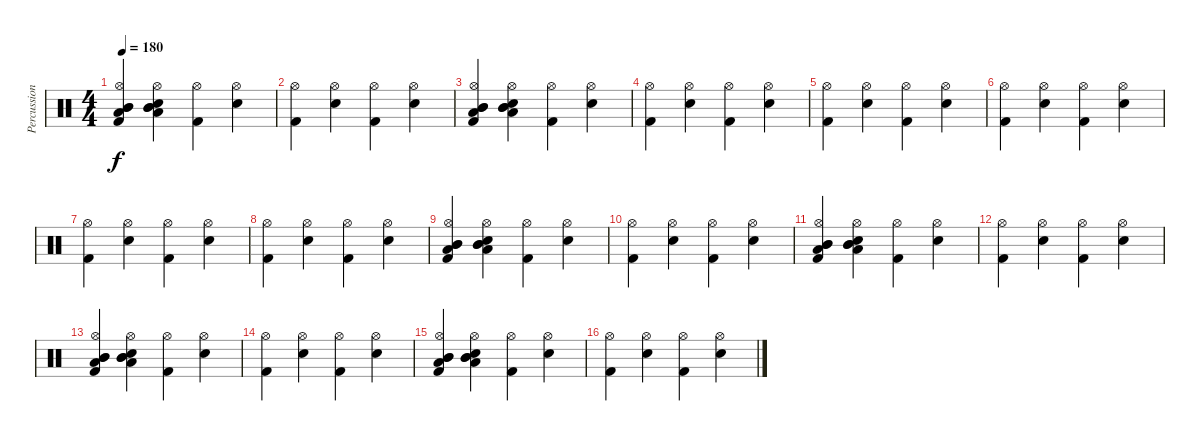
\track ("Percussion" "Percussion") {instrument percussion}
\staff {score}
\articulation defaults
\ts (4 4)
\tempo 180
\clef neutral
\ks c
("Low Tom (hit)" "Mid Tom (hit)" "Mid Tom (hit)" "Hi-Hat (open)" "Kick (hit) 2").4{dy f} ("Low Tom (hit)" "Mid Tom (hit)" "Mid Tom (hit)" "Hi-Hat (open)" "Electric Snare (hit)").4 ("Hi-Hat (open)" "Kick (hit) 2").4 ("Hi-Hat (open)" "Electric Snare (hit)").4 |
("Hi-Hat (open)" "Kick (hit) 2").4 ("Hi-Hat (open)" "Electric Snare (hit)").4 ("Hi-Hat (open)" "Kick (hit) 2").4 ("Hi-Hat (open)" "Electric Snare (hit)").4 |
("Low Tom (hit)" "Mid Tom (hit)" "Mid Tom (hit)" "Hi-Hat (open)" "Kick (hit) 2").4 ("Low Tom (hit)" "Mid Tom (hit)" "Mid Tom (hit)" "Hi-Hat (open)" "Electric Snare (hit)").4 ("Hi-Hat (open)" "Kick (hit) 2").4 ("Hi-Hat (open)" "Electric Snare (hit)").4 |
("Hi-Hat (open)" "Kick (hit) 2").4 ("Hi-Hat (open)" "Electric Snare (hit)").4 ("Hi-Hat (open)" "Kick (hit) 2").4 ("Hi-Hat (open)" "Electric Snare (hit)").4 |
("Hi-Hat (open)" "Kick (hit) 2").4 ("Hi-Hat (open)" "Electric Snare (hit)").4 ("Hi-Hat (open)" "Kick (hit) 2").4 ("Hi-Hat (open)" "Electric Snare (hit)").4 |
("Hi-Hat (open)" "Kick (hit) 2").4 ("Hi-Hat (open)" "Electric Snare (hit)").4 ("Hi-Hat (open)" "Kick (hit) 2").4 ("Hi-Hat (open)" "Electric Snare (hit)").4 |
("Hi-Hat (open)" "Kick (hit) 2").4 ("Hi-Hat (open)" "Electric Snare (hit)").4 ("Hi-Hat (open)" "Kick (hit) 2").4 ("Hi-Hat (open)" "Electric Snare (hit)").4 |
("Hi-Hat (open)" "Kick (hit) 2").4 ("Hi-Hat (open)" "Electric Snare (hit)").4 ("Hi-Hat (open)" "Kick (hit) 2").4 ("Hi-Hat (open)" "Electric Snare (hit)").4 |
("Low Tom (hit)" "Mid Tom (hit)" "Mid Tom (hit)" "Hi-Hat (open)" "Kick (hit) 2").4 ("Low Tom (hit)" "Mid Tom (hit)" "Mid Tom (hit)" "Hi-Hat (open)" "Electric Snare (hit)").4 ("Hi-Hat (open)" "Kick (hit) 2").4 ("Hi-Hat (open)" "Electric Snare (hit)").4 |
("Hi-Hat (open)" "Kick (hit) 2").4 ("Hi-Hat (open)" "Electric Snare (hit)").4 ("Hi-Hat (open)" "Kick (hit) 2").4 ("Hi-Hat (open)" "Electric Snare (hit)").4 |
("Low Tom (hit)" "Mid Tom (hit)" "Mid Tom (hit)" "Hi-Hat (open)" "Kick (hit) 2").4 ("Low Tom (hit)" "Mid Tom (hit)" "Mid Tom (hit)" "Hi-Hat (open)" "Electric Snare (hit)").4 ("Hi-Hat (open)" "Kick (hit) 2").4 ("Hi-Hat (open)" "Electric Snare (hit)").4 |
("Hi-Hat (open)" "Kick (hit) 2").4 ("Hi-Hat (open)" "Electric Snare (hit)").4 ("Hi-Hat (open)" "Kick (hit) 2").4 ("Hi-Hat (open)" "Electric Snare (hit)").4 |
("Low Tom (hit)" "Mid Tom (hit)" "Mid Tom (hit)" "Hi-Hat (open)" "Kick (hit) 2").4 ("Low Tom (hit)" "Mid Tom (hit)" "Mid Tom (hit)" "Hi-Hat (open)" "Electric Snare (hit)").4 ("Hi-Hat (open)" "Kick (hit) 2").4 ("Hi-Hat (open)" "Electric Snare (hit)").4 |
("Hi-Hat (open)" "Kick (hit) 2").4 ("Hi-Hat (open)" "Electric Snare (hit)").4 ("Hi-Hat (open)" "Kick (hit) 2").4 ("Hi-Hat (open)" "Electric Snare (hit)").4 |
("Low Tom (hit)" "Mid Tom (hit)" "Mid Tom (hit)" "Hi-Hat (open)" "Kick (hit) 2").4 ("Low Tom (hit)" "Mid Tom (hit)" "Mid Tom (hit)" "Hi-Hat (open)" "Electric Snare (hit)").4 ("Hi-Hat (open)" "Kick (hit) 2").4 ("Hi-Hat (open)" "Electric Snare (hit)").4 |
("Hi-Hat (open)" "Kick (hit) 2").4 ("Hi-Hat (open)" "Electric Snare (hit)").4 ("Hi-Hat (open)" "Kick (hit) 2").4 ("Hi-Hat (open)" "Electric Snare (hit)").4
